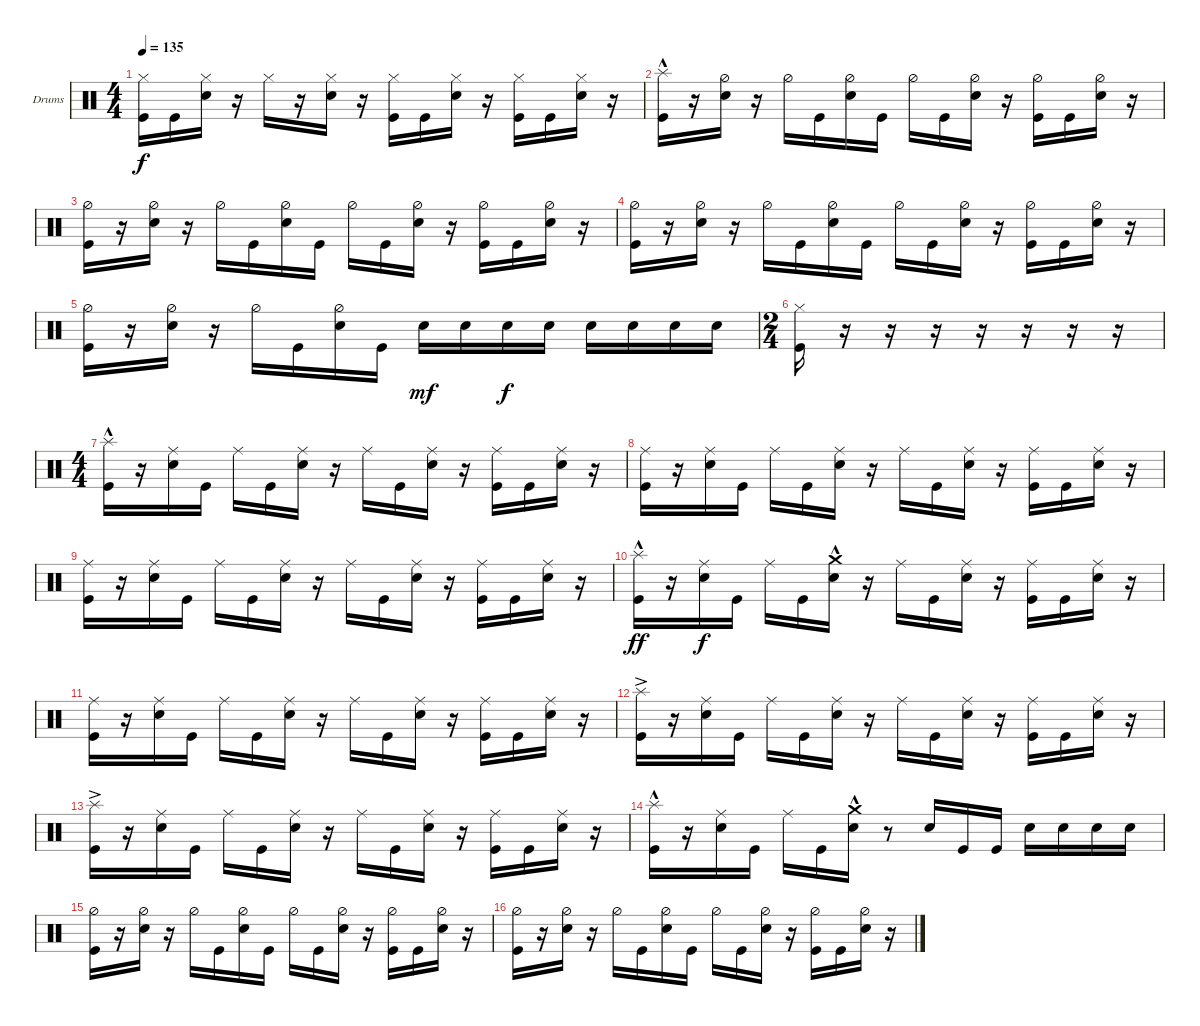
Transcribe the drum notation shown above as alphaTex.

\defaultSystemsLayout 4
\bracketExtendMode groupsimilarinstruments
\firstSystemTrackNameOrientation horizontal
\otherSystemsTrackNameOrientation horizontal
\track ("Drumkit" "Drums") {instrument percussion}
\staff {score}
\articulation defaults
\ts (4 4)
\tempo 135
\clef neutral
\ks c
("Kick (hit)" "Hi-Hat (closed)").16{dy f} "Kick (hit)".16 ("Snare (hit) 2" "Hi-Hat (closed)").16 r.16 "Hi-Hat (closed)".16 r.16 ("Snare (hit) 2" "Hi-Hat (closed)").16 r.16 ("Hi-Hat (closed)" "Kick (hit)").16 "Kick (hit)".16 ("Snare (hit) 2" "Hi-Hat (closed)").16 r.16 ("Hi-Hat (closed)" "Kick (hit)").16 "Kick (hit)".16 ("Snare (hit) 2" "Hi-Hat (closed)").16 r.16 |
("Kick (hit)" "Splash (hit)"{hac}).16 r.16 ("Snare (hit) 2" "Hi-Hat (half)").16 r.16 "Hi-Hat (half)".16 "Kick (hit)".16 ("Snare (hit) 2" "Hi-Hat (half)").16 "Kick (hit)".16 "Hi-Hat (half)".16 "Kick (hit)".16 ("Snare (hit) 2" "Hi-Hat (half)").16 r.16 ("Kick (hit)" "Hi-Hat (half)").16 "Kick (hit)".16 ("Snare (hit) 2" "Hi-Hat (half)").16 r.16 |
("Kick (hit)" "Hi-Hat (half)").16 r.16 ("Snare (hit) 2" "Hi-Hat (half)").16 r.16 "Hi-Hat (half)".16 "Kick (hit)".16 ("Snare (hit) 2" "Hi-Hat (half)").16 "Kick (hit)".16 "Hi-Hat (half)".16 "Kick (hit)".16 ("Snare (hit) 2" "Hi-Hat (half)").16 r.16 ("Kick (hit)" "Hi-Hat (half)").16 "Kick (hit)".16 ("Snare (hit) 2" "Hi-Hat (half)").16 r.16 |
("Kick (hit)" "Hi-Hat (half)").16 r.16 ("Snare (hit) 2" "Hi-Hat (half)").16 r.16 "Hi-Hat (half)".16 "Kick (hit)".16 ("Snare (hit) 2" "Hi-Hat (half)").16 "Kick (hit)".16 "Hi-Hat (half)".16 "Kick (hit)".16 ("Snare (hit) 2" "Hi-Hat (half)").16 r.16 ("Kick (hit)" "Hi-Hat (half)").16 "Kick (hit)".16 ("Snare (hit) 2" "Hi-Hat (half)").16 r.16 |
("Kick (hit)" "Hi-Hat (half)").16 r.16 ("Snare (hit) 2" "Hi-Hat (half)").16 r.16 "Hi-Hat (half)".16 "Kick (hit)".16 ("Snare (hit) 2" "Hi-Hat (half)").16 "Kick (hit)".16 "Snare (hit) 2".16{dy mf} "Snare (hit) 2".16 "Snare (hit) 2".16{dy f} "Snare (hit) 2".16 "Snare (hit) 2".16 "Snare (hit) 2".16 "Snare (hit) 2".16 "Snare (hit) 2".16 |
\ts (2 4)
("Kick (hit)" "Hi-Hat (closed)").16 r.16 r.16 r.16 r.16 r.16 r.16 r.16 |
\ts (4 4)
("Kick (hit)" "Splash (hit)"{hac}).16 r.16 ("Snare (hit) 2" "Ride (middle)").16 "Kick (hit)".16 "Ride (middle)".16 "Kick (hit)".16 ("Snare (hit) 2" "Ride (middle)").16 r.16 "Ride (middle)".16 "Kick (hit)".16 ("Snare (hit) 2" "Ride (middle)").16 r.16 ("Kick (hit)" "Ride (middle)").16 "Kick (hit)".16 ("Snare (hit) 2" "Ride (middle)").16 r.16 |
("Kick (hit)" "Ride (middle)").16 r.16 ("Snare (hit) 2" "Ride (middle)").16 "Kick (hit)".16 "Ride (middle)".16 "Kick (hit)".16 ("Snare (hit) 2" "Ride (middle)").16 r.16 "Ride (middle)".16 "Kick (hit)".16 ("Snare (hit) 2" "Ride (middle)").16 r.16 ("Kick (hit)" "Ride (middle)").16 "Kick (hit)".16 ("Snare (hit) 2" "Ride (middle)").16 r.16 |
("Kick (hit)" "Ride (middle)").16 r.16 ("Snare (hit) 2" "Ride (middle)").16 "Kick (hit)".16 "Ride (middle)".16 "Kick (hit)".16 ("Snare (hit) 2" "Ride (middle)").16 r.16 "Ride (middle)".16 "Kick (hit)".16 ("Snare (hit) 2" "Ride (middle)").16 r.16 ("Kick (hit)" "Ride (middle)").16 "Kick (hit)".16 ("Snare (hit) 2" "Ride (middle)").16 r.16 |
("Kick (hit)" "Splash (hit)"{hac}).16{dy ff} r.16 ("Snare (hit) 2" "Ride (middle)").16{dy f} "Kick (hit)".16 "Ride (middle)".16 "Kick (hit)".16 ("Snare (hit) 2" "Crash medium (hit)"{hac}).16 r.16 "Ride (middle)".16 "Kick (hit)".16 ("Snare (hit) 2" "Ride (middle)").16 r.16 ("Kick (hit)" "Ride (middle)").16 "Kick (hit)".16 ("Snare (hit) 2" "Ride (middle)").16 r.16 |
("Kick (hit)" "Ride (middle)").16 r.16 ("Snare (hit) 2" "Ride (middle)").16 "Kick (hit)".16 "Ride (middle)".16 "Kick (hit)".16 ("Snare (hit) 2" "Ride (middle)").16 r.16 "Ride (middle)".16 "Kick (hit)".16 ("Snare (hit) 2" "Ride (middle)").16 r.16 ("Kick (hit)" "Ride (middle)").16 "Kick (hit)".16 ("Snare (hit) 2" "Ride (middle)").16 r.16 |
("Kick (hit)" "Splash (hit)"{ac}).16 r.16 ("Snare (hit) 2" "Ride (middle)").16 "Kick (hit)".16 "Ride (middle)".16 "Kick (hit)".16 ("Snare (hit) 2" "Ride (middle)").16 r.16 "Ride (middle)".16 "Kick (hit)".16 ("Snare (hit) 2" "Ride (middle)").16 r.16 ("Kick (hit)" "Ride (middle)").16 "Kick (hit)".16 ("Snare (hit) 2" "Ride (middle)").16 r.16 |
("Kick (hit)" "Splash (hit)"{ac}).16 r.16 ("Snare (hit) 2" "Ride (middle)").16 "Kick (hit)".16 "Ride (middle)".16 "Kick (hit)".16 ("Snare (hit) 2" "Ride (middle)").16 r.16 "Ride (middle)".16 "Kick (hit)".16 ("Snare (hit) 2" "Ride (middle)").16 r.16 ("Kick (hit)" "Ride (middle)").16 "Kick (hit)".16 ("Snare (hit) 2" "Ride (middle)").16 r.16 |
("Kick (hit)" "Splash (hit)"{hac}).16 r.16 ("Snare (hit) 2" "Ride (middle)").16 "Kick (hit)".16 "Ride (middle)".16 "Kick (hit)".16 ("Snare (hit) 2" "Crash medium (hit)"{hac}).16 r.8 "Snare (hit) 2".16 "Kick (hit)".16 "Kick (hit)".16 "Snare (hit) 2".16 "Snare (hit) 2".16 "Snare (hit) 2".16 "Snare (hit) 2".16 |
("Kick (hit)" "Hi-Hat (half)").16 r.16 ("Snare (hit) 2" "Hi-Hat (half)").16 r.16 "Hi-Hat (half)".16 "Kick (hit)".16 ("Snare (hit) 2" "Hi-Hat (half)").16 "Kick (hit)".16 "Hi-Hat (half)".16 "Kick (hit)".16 ("Snare (hit) 2" "Hi-Hat (half)").16 r.16 ("Kick (hit)" "Hi-Hat (half)").16 "Kick (hit)".16 ("Snare (hit) 2" "Hi-Hat (half)").16 r.16 |
("Kick (hit)" "Hi-Hat (half)").16 r.16 ("Snare (hit) 2" "Hi-Hat (half)").16 r.16 "Hi-Hat (half)".16 "Kick (hit)".16 ("Snare (hit) 2" "Hi-Hat (half)").16 "Kick (hit)".16 "Hi-Hat (half)".16 "Kick (hit)".16 ("Snare (hit) 2" "Hi-Hat (half)").16 r.16 ("Kick (hit)" "Hi-Hat (half)").16 "Kick (hit)".16 ("Snare (hit) 2" "Hi-Hat (half)").16 r.16
